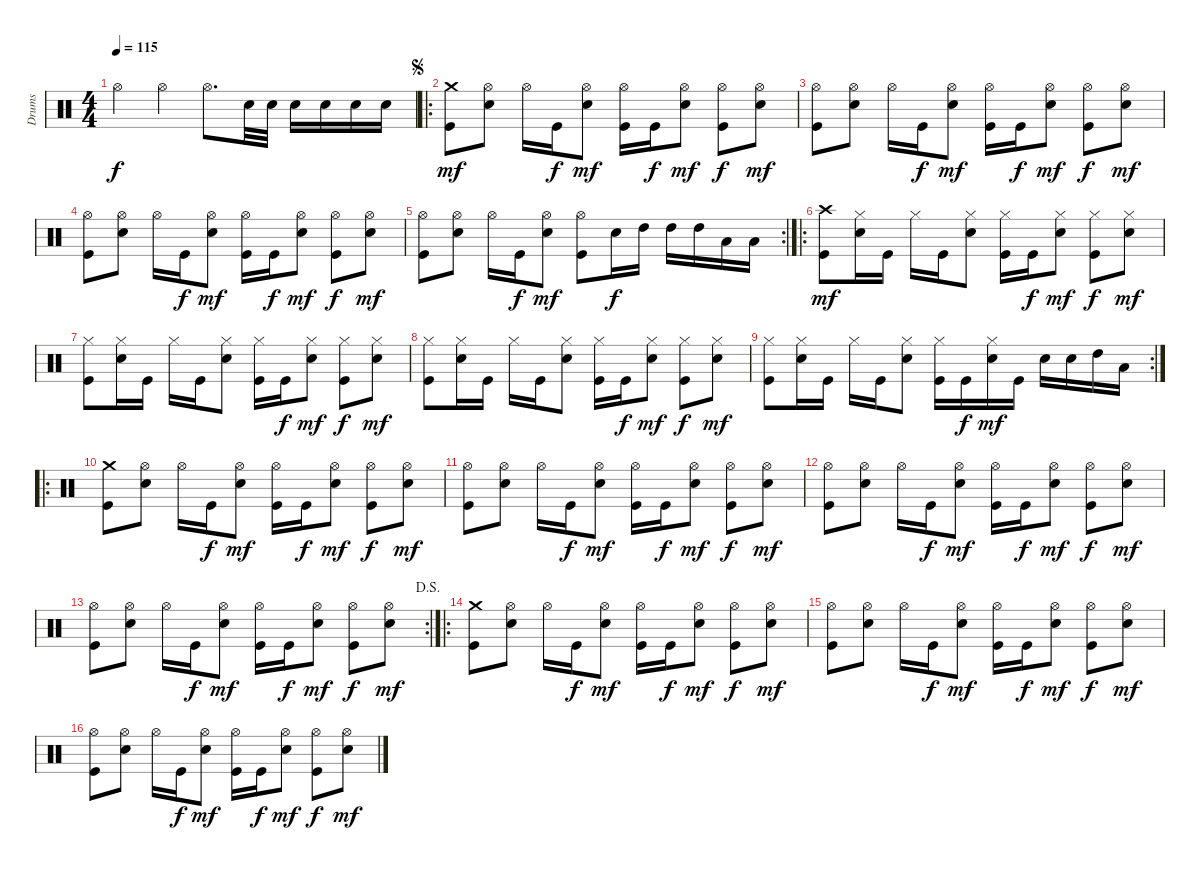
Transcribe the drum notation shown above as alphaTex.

\bracketExtendMode groupsimilarinstruments
\otherSystemsTrackNameOrientation horizontal
\track ("Drumkit" "Drums") {instrument percussion}
\staff {score}
\articulation defaults
\ts (4 4)
\beaming (8 2 2 2 2)
\tempo 115
\clef neutral
\ks c "Hi-Hat (open)".4{dy f} "Hi-Hat (open)".4 "Hi-Hat (open)".8{d} "Snare (hit) 2".32 "Snare (hit) 2".32 "Snare (hit) 2".16 "Snare (hit) 2".16 "Snare (hit) 2".16 "Snare (hit) 2".16
|
\ro
\jump segno
("Crash medium (hit)" "Kick (hit)").8{dy mf} ("Hi-Hat (open)" "Snare (hit) 2").8 "Hi-Hat (open)".16 "Kick (hit)".16{dy f} ("Hi-Hat (open)" "Snare (hit) 2").8{dy mf} ("Hi-Hat (open)" "Kick (hit)").16 "Kick (hit)".16{dy f} ("Hi-Hat (open)" "Snare (hit) 2").8{dy mf} ("Kick (hit)" "Hi-Hat (open)").8{dy f} ("Hi-Hat (open)" "Snare (hit) 2").8{dy mf} |
("Hi-Hat (open)" "Kick (hit)").8 ("Hi-Hat (open)" "Snare (hit) 2").8 "Hi-Hat (open)".16 "Kick (hit)".16{dy f} ("Hi-Hat (open)" "Snare (hit) 2").8{dy mf} ("Hi-Hat (open)" "Kick (hit)").16 "Kick (hit)".16{dy f} ("Hi-Hat (open)" "Snare (hit) 2").8{dy mf} ("Kick (hit)" "Hi-Hat (open)").8{dy f} ("Hi-Hat (open)" "Snare (hit) 2").8{dy mf} |
("Hi-Hat (open)" "Kick (hit)").8 ("Hi-Hat (open)" "Snare (hit) 2").8 "Hi-Hat (open)".16 "Kick (hit)".16{dy f} ("Hi-Hat (open)" "Snare (hit) 2").8{dy mf} ("Hi-Hat (open)" "Kick (hit)").16 "Kick (hit)".16{dy f} ("Hi-Hat (open)" "Snare (hit) 2").8{dy mf} ("Kick (hit)" "Hi-Hat (open)").8{dy f} ("Hi-Hat (open)" "Snare (hit) 2").8{dy mf} |
\rc 2
("Hi-Hat (open)" "Kick (hit)").8 ("Hi-Hat (open)" "Snare (hit) 2").8 "Hi-Hat (open)".16 "Kick (hit)".16{dy f} ("Hi-Hat (open)" "Snare (hit) 2").8{dy mf} ("Hi-Hat (open)" "Kick (hit)").8 "Snare (hit) 2".16{dy f} "High Tom (hit)".16 "High Tom (hit)".16 "High Tom (hit)".16 "Low Tom (hit)".16 "Low Tom (hit)".16 |
\ro
("Crash high (hit)" "Kick (hit)").8{dy mf} ("Hi-Hat (closed)" "Snare (hit) 2").16 "Kick (hit)".16 "Hi-Hat (closed)".16 "Kick (hit)".16 ("Hi-Hat (closed)" "Snare (hit) 2").8 ("Hi-Hat (closed)" "Kick (hit)").16 "Kick (hit)".16{dy f} ("Hi-Hat (closed)" "Snare (hit) 2").8{dy mf} ("Hi-Hat (closed)" "Kick (hit)").8{dy f} ("Hi-Hat (closed)" "Snare (hit) 2").8{dy mf} |
("Hi-Hat (closed)" "Kick (hit)").8 ("Hi-Hat (closed)" "Snare (hit) 2").16 "Kick (hit)".16 "Hi-Hat (closed)".16 "Kick (hit)".16 ("Hi-Hat (closed)" "Snare (hit) 2").8 ("Hi-Hat (closed)" "Kick (hit)").16 "Kick (hit)".16{dy f} ("Hi-Hat (closed)" "Snare (hit) 2").8{dy mf} ("Hi-Hat (closed)" "Kick (hit)").8{dy f} ("Hi-Hat (closed)" "Snare (hit) 2").8{dy mf} |
("Hi-Hat (closed)" "Kick (hit)").8 ("Hi-Hat (closed)" "Snare (hit) 2").16 "Kick (hit)".16 "Hi-Hat (closed)".16 "Kick (hit)".16 ("Hi-Hat (closed)" "Snare (hit) 2").8 ("Hi-Hat (closed)" "Kick (hit)").16 "Kick (hit)".16{dy f} ("Hi-Hat (closed)" "Snare (hit) 2").8{dy mf} ("Hi-Hat (closed)" "Kick (hit)").8{dy f} ("Hi-Hat (closed)" "Snare (hit) 2").8{dy mf} |
\rc 2
("Hi-Hat (closed)" "Kick (hit)").8 ("Hi-Hat (closed)" "Snare (hit) 2").16 "Kick (hit)".16 "Hi-Hat (closed)".16 "Kick (hit)".16 ("Hi-Hat (closed)" "Snare (hit) 2").8 ("Hi-Hat (closed)" "Kick (hit)").16 "Kick (hit)".16{dy f} ("Hi-Hat (closed)" "Snare (hit) 2").16{dy mf} "Kick (hit)".16 "Snare (hit) 2".16 "Snare (hit) 2".16 "High Tom (hit)".16 "Low Tom (hit)".16 |
\ro
("Crash medium (hit)" "Kick (hit)").8 ("Hi-Hat (open)" "Snare (hit) 2").8 "Hi-Hat (open)".16 "Kick (hit)".16{dy f} ("Hi-Hat (open)" "Snare (hit) 2").8{dy mf} ("Hi-Hat (open)" "Kick (hit)").16 "Kick (hit)".16{dy f} ("Hi-Hat (open)" "Snare (hit) 2").8{dy mf} ("Kick (hit)" "Hi-Hat (open)").8{dy f} ("Hi-Hat (open)" "Snare (hit) 2").8{dy mf} |
("Hi-Hat (open)" "Kick (hit)").8 ("Hi-Hat (open)" "Snare (hit) 2").8 "Hi-Hat (open)".16 "Kick (hit)".16{dy f} ("Hi-Hat (open)" "Snare (hit) 2").8{dy mf} ("Hi-Hat (open)" "Kick (hit)").16 "Kick (hit)".16{dy f} ("Hi-Hat (open)" "Snare (hit) 2").8{dy mf} ("Kick (hit)" "Hi-Hat (open)").8{dy f} ("Hi-Hat (open)" "Snare (hit) 2").8{dy mf} |
("Hi-Hat (open)" "Kick (hit)").8 ("Hi-Hat (open)" "Snare (hit) 2").8 "Hi-Hat (open)".16 "Kick (hit)".16{dy f} ("Hi-Hat (open)" "Snare (hit) 2").8{dy mf} ("Hi-Hat (open)" "Kick (hit)").16 "Kick (hit)".16{dy f} ("Hi-Hat (open)" "Snare (hit) 2").8{dy mf} ("Kick (hit)" "Hi-Hat (open)").8{dy f} ("Hi-Hat (open)" "Snare (hit) 2").8{dy mf} |
\rc 2
\jump dalsegno
("Hi-Hat (open)" "Kick (hit)").8 ("Hi-Hat (open)" "Snare (hit) 2").8 "Hi-Hat (open)".16 "Kick (hit)".16{dy f} ("Hi-Hat (open)" "Snare (hit) 2").8{dy mf} ("Hi-Hat (open)" "Kick (hit)").16 "Kick (hit)".16{dy f} ("Hi-Hat (open)" "Snare (hit) 2").8{dy mf} ("Kick (hit)" "Hi-Hat (open)").8{dy f} ("Hi-Hat (open)" "Snare (hit) 2").8{dy mf} |
\ro
("Crash medium (hit)" "Kick (hit)").8 ("Hi-Hat (open)" "Snare (hit) 2").8 "Hi-Hat (open)".16 "Kick (hit)".16{dy f} ("Hi-Hat (open)" "Snare (hit) 2").8{dy mf} ("Hi-Hat (open)" "Kick (hit)").16 "Kick (hit)".16{dy f} ("Hi-Hat (open)" "Snare (hit) 2").8{dy mf} ("Kick (hit)" "Hi-Hat (open)").8{dy f} ("Hi-Hat (open)" "Snare (hit) 2").8{dy mf} |
("Hi-Hat (open)" "Kick (hit)").8 ("Hi-Hat (open)" "Snare (hit) 2").8 "Hi-Hat (open)".16 "Kick (hit)".16{dy f} ("Hi-Hat (open)" "Snare (hit) 2").8{dy mf} ("Hi-Hat (open)" "Kick (hit)").16 "Kick (hit)".16{dy f} ("Hi-Hat (open)" "Snare (hit) 2").8{dy mf} ("Kick (hit)" "Hi-Hat (open)").8{dy f} ("Hi-Hat (open)" "Snare (hit) 2").8{dy mf} |
("Hi-Hat (open)" "Kick (hit)").8 ("Hi-Hat (open)" "Snare (hit) 2").8 "Hi-Hat (open)".16 "Kick (hit)".16{dy f} ("Hi-Hat (open)" "Snare (hit) 2").8{dy mf} ("Hi-Hat (open)" "Kick (hit)").16 "Kick (hit)".16{dy f} ("Hi-Hat (open)" "Snare (hit) 2").8{dy mf} ("Kick (hit)" "Hi-Hat (open)").8{dy f} ("Hi-Hat (open)" "Snare (hit) 2").8{dy mf}
